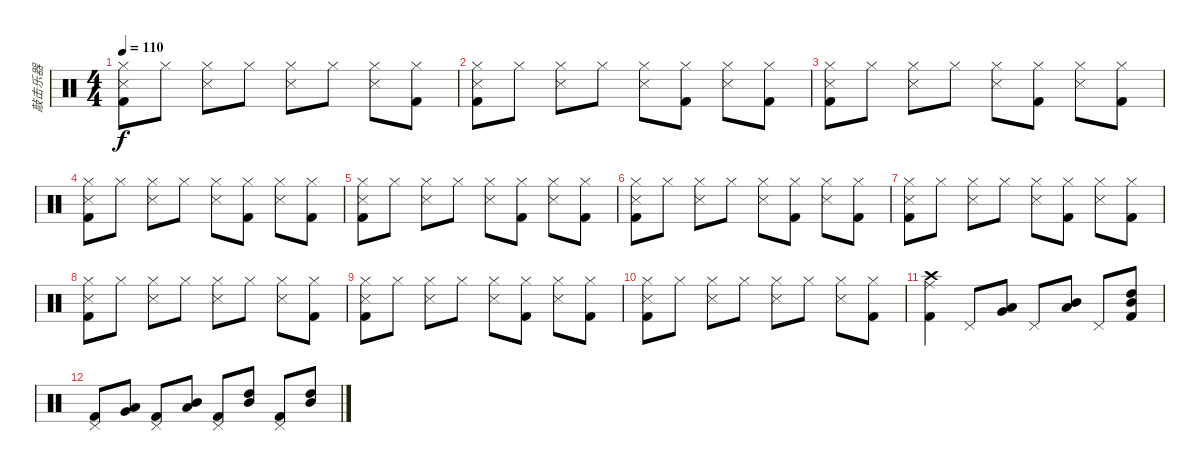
\track ("敲击乐器" "敲击乐器") {instrument percussion}
\staff {score}
\articulation defaults
\ts (4 4)
\tempo 110
\clef neutral
\ks c
("Hi-Hat (closed)" "Metronome (hit)" "Kick (hit) 2").8{dy f} "Hi-Hat (closed)".8 ("Hi-Hat (closed)" "Metronome (hit)").8 "Hi-Hat (closed)".8 ("Hi-Hat (closed)" "Metronome (hit)").8 "Hi-Hat (closed)".8 ("Hi-Hat (closed)" "Metronome (hit)").8 ("Hi-Hat (closed)" "Kick (hit) 2").8 |
("Hi-Hat (closed)" "Metronome (hit)" "Kick (hit) 2").8 "Hi-Hat (closed)".8 ("Hi-Hat (closed)" "Metronome (hit)").8 "Hi-Hat (closed)".8 ("Hi-Hat (closed)" "Metronome (hit)").8 ("Hi-Hat (closed)" "Kick (hit) 2").8 ("Hi-Hat (closed)" "Metronome (hit)").8 ("Hi-Hat (closed)" "Kick (hit) 2").8 |
("Hi-Hat (closed)" "Metronome (hit)" "Kick (hit) 2").8 "Hi-Hat (closed)".8 ("Hi-Hat (closed)" "Metronome (hit)").8 "Hi-Hat (closed)".8 ("Hi-Hat (closed)" "Metronome (hit)").8 ("Hi-Hat (closed)" "Kick (hit) 2").8 ("Hi-Hat (closed)" "Metronome (hit)").8 ("Hi-Hat (closed)" "Kick (hit) 2").8 |
("Hi-Hat (closed)" "Metronome (hit)" "Kick (hit) 2").8 "Hi-Hat (closed)".8 ("Hi-Hat (closed)" "Metronome (hit)").8 "Hi-Hat (closed)".8 ("Hi-Hat (closed)" "Metronome (hit)").8 ("Hi-Hat (closed)" "Kick (hit) 2").8 ("Hi-Hat (closed)" "Metronome (hit)").8 ("Hi-Hat (closed)" "Kick (hit) 2").8 |
("Hi-Hat (closed)" "Metronome (hit)" "Kick (hit) 2").8 "Hi-Hat (closed)".8 ("Hi-Hat (closed)" "Metronome (hit)").8 "Hi-Hat (closed)".8 ("Hi-Hat (closed)" "Metronome (hit)").8 ("Hi-Hat (closed)" "Kick (hit) 2").8 ("Hi-Hat (closed)" "Metronome (hit)").8 ("Hi-Hat (closed)" "Kick (hit) 2").8 |
("Hi-Hat (closed)" "Metronome (hit)" "Kick (hit) 2").8 "Hi-Hat (closed)".8 ("Hi-Hat (closed)" "Metronome (hit)").8 "Hi-Hat (closed)".8 ("Hi-Hat (closed)" "Metronome (hit)").8 ("Hi-Hat (closed)" "Kick (hit) 2").8 ("Hi-Hat (closed)" "Metronome (hit)").8 ("Hi-Hat (closed)" "Kick (hit) 2").8 |
("Hi-Hat (closed)" "Metronome (hit)" "Kick (hit) 2").8 "Hi-Hat (closed)".8 ("Hi-Hat (closed)" "Metronome (hit)").8 "Hi-Hat (closed)".8 ("Hi-Hat (closed)" "Metronome (hit)").8 ("Hi-Hat (closed)" "Kick (hit) 2").8 ("Hi-Hat (closed)" "Metronome (hit)").8 ("Hi-Hat (closed)" "Kick (hit) 2").8 |
("Hi-Hat (closed)" "Metronome (hit)" "Kick (hit) 2").8 "Hi-Hat (closed)".8 ("Hi-Hat (closed)" "Metronome (hit)").8 "Hi-Hat (closed)".8 ("Hi-Hat (closed)" "Metronome (hit)").8 "Hi-Hat (closed)".8 ("Hi-Hat (closed)" "Metronome (hit)").8 ("Hi-Hat (closed)" "Kick (hit) 2").8 |
("Hi-Hat (closed)" "Metronome (hit)" "Kick (hit) 2").8 "Hi-Hat (closed)".8 ("Hi-Hat (closed)" "Metronome (hit)").8 "Hi-Hat (closed)".8 ("Hi-Hat (closed)" "Metronome (hit)").8 ("Hi-Hat (closed)" "Kick (hit) 2").8 ("Hi-Hat (closed)" "Metronome (hit)").8 ("Hi-Hat (closed)" "Kick (hit) 2").8 |
("Hi-Hat (closed)" "Metronome (hit)" "Kick (hit) 2").8 "Hi-Hat (closed)".8 ("Hi-Hat (closed)" "Metronome (hit)").8 "Hi-Hat (closed)".8 ("Hi-Hat (closed)" "Metronome (hit)").8 "Hi-Hat (closed)".8 ("Hi-Hat (closed)" "Metronome (hit)").8 ("Hi-Hat (closed)" "Kick (hit) 2").8 |
("Crash high (hit)" "Ride (middle)" "Kick (hit) 2").4 "Pedal Hi-Hat (hit)".8 ("Very Low Tom (hit)" "Low Tom (hit)").8 "Pedal Hi-Hat (hit)".8 ("Low Tom (hit)" "Mid Tom (hit)").8 "Pedal Hi-Hat (hit)".8 ("Mid Tom (hit)" "High Tom (hit)" "Kick (hit) 2").8 |
("Pedal Hi-Hat (hit)" "Kick (hit) 2").8 ("Very Low Tom (hit)" "Low Tom (hit)").8 ("Pedal Hi-Hat (hit)" "Kick (hit) 2").8 ("Low Tom (hit)" "Mid Tom (hit)").8 ("Pedal Hi-Hat (hit)" "Kick (hit) 2").8 ("Mid Tom (hit)" "High Tom (hit)").8 ("Pedal Hi-Hat (hit)" "Kick (hit) 2").8 ("Mid Tom (hit)" "High Tom (hit)").8
